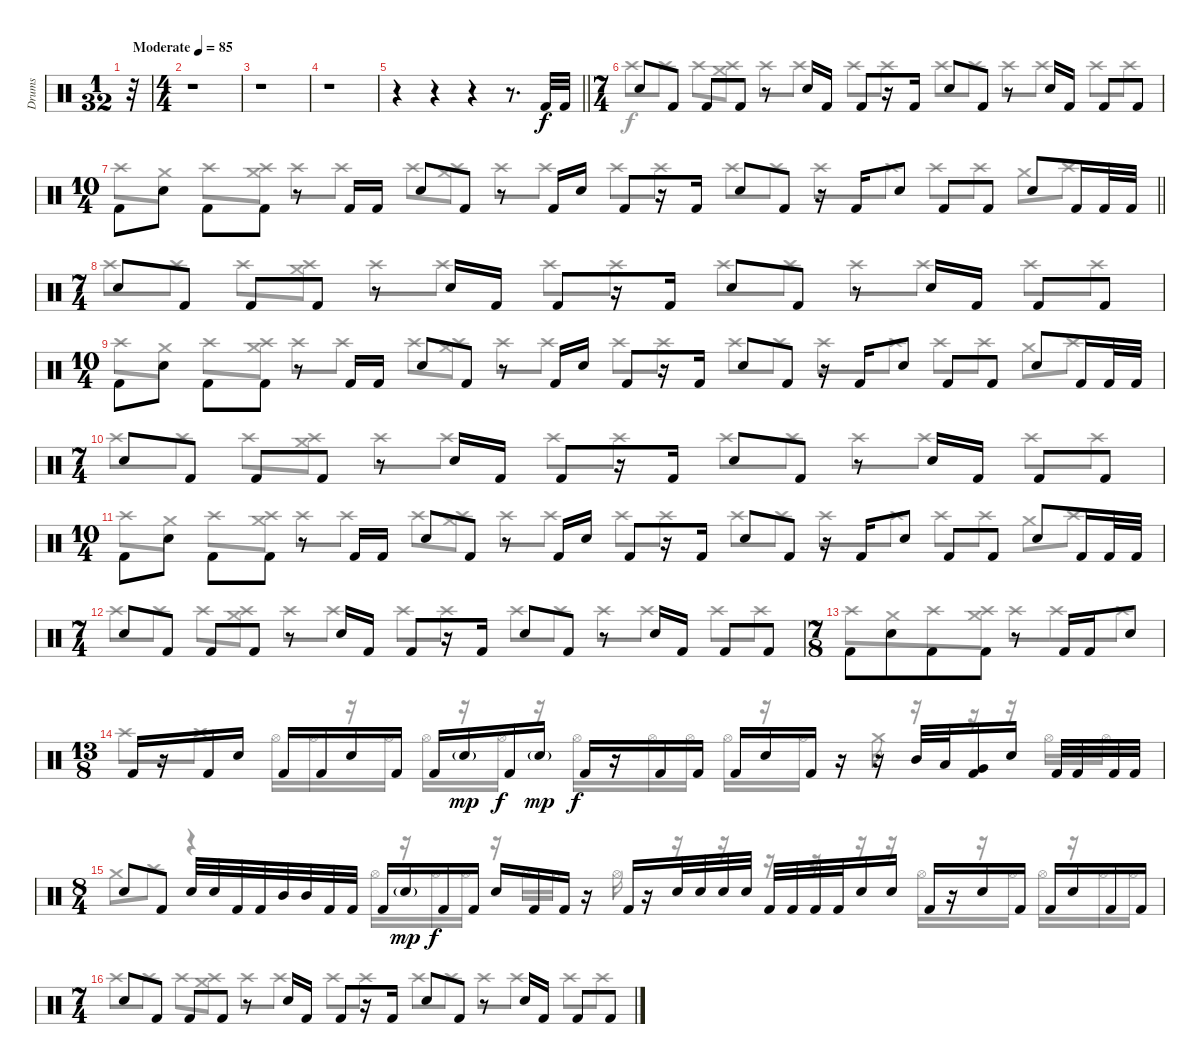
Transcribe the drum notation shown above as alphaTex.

\track ("Drums" "Drums") {instrument percussion}
\staff {score}
\articulation defaults
\voice
\ts (1 32)
\tempo (85 "Moderate")
\clef neutral
\ks c
r.32{dy f} |
\ts (4 4)
r.1 |
r.1 |
r.1 |
\barLineRight lightlight
r.4 r.4 r.4 r.8{d} "Kick (hit) 2".32 "Kick (hit) 2".32 |
\ts (7 4)
\section ("" "")
"Electric Snare (hit)".8 "Kick (hit) 2".8 "Kick (hit) 2".8 "Kick (hit) 2".8 r.8 "Electric Snare (hit)".16 "Kick (hit) 2".16 "Kick (hit) 2".8 r.16 "Kick (hit) 2".16 "Electric Snare (hit)".8 "Kick (hit) 2".8 r.8 "Electric Snare (hit)".16 "Kick (hit) 2".16 "Kick (hit) 2".8 "Kick (hit) 2".8 |
\ts (10 4)
\barLineRight lightlight "Kick (hit) 2".8{beam Down} "Electric Snare (hit)".8{beam Down} "Kick (hit) 2".8{beam Down} "Kick (hit) 2".8{beam Down}
r.8 "Kick (hit) 2".16 "Kick (hit) 2".16 "Electric Snare (hit)".8 "Kick (hit) 2".8 r.8 "Kick (hit) 2".16 "Electric Snare (hit)".16 "Kick (hit) 2".8 r.16 "Kick (hit) 2".16 "Electric Snare (hit)".8 "Kick (hit) 2".8 r.16 "Kick (hit) 2".16 "Electric Snare (hit)".8 "Kick (hit) 2".8 "Kick (hit) 2".8 "Electric Snare (hit)".8 "Kick (hit) 2".16 "Kick (hit) 2".32 "Kick (hit) 2".32 |
\ts (7 4)
\section ("" "")
"Electric Snare (hit)".8 "Kick (hit) 2".8 "Kick (hit) 2".8 "Kick (hit) 2".8 r.8 "Electric Snare (hit)".16 "Kick (hit) 2".16 "Kick (hit) 2".8 r.16 "Kick (hit) 2".16 "Electric Snare (hit)".8 "Kick (hit) 2".8 r.8 "Electric Snare (hit)".16 "Kick (hit) 2".16 "Kick (hit) 2".8 "Kick (hit) 2".8 |
\ts (10 4)
"Kick (hit) 2".8{beam Down} "Electric Snare (hit)".8{beam Down} "Kick (hit) 2".8{beam Down} "Kick (hit) 2".8{beam Down} r.8 "Kick (hit) 2".16 "Kick (hit) 2".16 "Electric Snare (hit)".8 "Kick (hit) 2".8 r.8 "Kick (hit) 2".16 "Electric Snare (hit)".16 "Kick (hit) 2".8 r.16 "Kick (hit) 2".16 "Electric Snare (hit)".8 "Kick (hit) 2".8 r.16 "Kick (hit) 2".16 "Electric Snare (hit)".8 "Kick (hit) 2".8 "Kick (hit) 2".8 "Electric Snare (hit)".8 "Kick (hit) 2".16 "Kick (hit) 2".32 "Kick (hit) 2".32 |
\ts (7 4)
"Electric Snare (hit)".8 "Kick (hit) 2".8 "Kick (hit) 2".8 "Kick (hit) 2".8 r.8 "Electric Snare (hit)".16 "Kick (hit) 2".16 "Kick (hit) 2".8 r.16 "Kick (hit) 2".16 "Electric Snare (hit)".8 "Kick (hit) 2".8 r.8 "Electric Snare (hit)".16 "Kick (hit) 2".16 "Kick (hit) 2".8 "Kick (hit) 2".8 |
\ts (10 4)
"Kick (hit) 2".8{beam Down} "Electric Snare (hit)".8{beam Down} "Kick (hit) 2".8{beam Down} "Kick (hit) 2".8{beam Down} r.8 "Kick (hit) 2".16 "Kick (hit) 2".16 "Electric Snare (hit)".8 "Kick (hit) 2".8 r.8 "Kick (hit) 2".16 "Electric Snare (hit)".16 "Kick (hit) 2".8 r.16 "Kick (hit) 2".16 "Electric Snare (hit)".8 "Kick (hit) 2".8 r.16 "Kick (hit) 2".16 "Electric Snare (hit)".8 "Kick (hit) 2".8 "Kick (hit) 2".8 "Electric Snare (hit)".8 "Kick (hit) 2".16 "Kick (hit) 2".32 "Kick (hit) 2".32 |
\ts (7 4)
"Electric Snare (hit)".8 "Kick (hit) 2".8 "Kick (hit) 2".8 "Kick (hit) 2".8 r.8 "Electric Snare (hit)".16 "Kick (hit) 2".16 "Kick (hit) 2".8 r.16 "Kick (hit) 2".16 "Electric Snare (hit)".8 "Kick (hit) 2".8 r.8 "Electric Snare (hit)".16 "Kick (hit) 2".16 "Kick (hit) 2".8 "Kick (hit) 2".8 |
\ts (7 8)
"Kick (hit) 2".8{beam Down} "Electric Snare (hit)".8{beam Down} "Kick (hit) 2".8{beam Down} "Kick (hit) 2".8{beam Down} r.8 "Kick (hit) 2".16 "Kick (hit) 2".16 "Electric Snare (hit)".8 |
\ts (13 8)
"Kick (hit) 2".16 r.16 "Kick (hit) 2".16 "Electric Snare (hit)".16 "Kick (hit) 2".16 "Kick (hit) 2".16 "Electric Snare (hit)".16 "Kick (hit) 2".16 "Kick (hit) 2".16 "Electric Snare (hit)"{g}.16{dy mp} "Kick (hit) 2".16{dy f} "Electric Snare (hit)"{g}.16{dy mp} "Kick (hit) 2".16{dy f} r.16 "Kick (hit) 2".16 "Kick (hit) 2".16 "Kick (hit) 2".16 "Electric Snare (hit)".16 "Kick (hit) 2".16 r.16 r.16 "Mid Tom (hit)".32 "Low Tom (hit)".32 ("Very Low Tom (hit)" "Kick (hit) 2").16 "Electric Snare (hit)".16 "Kick (hit) 2".32 "Kick (hit) 2".32 "Kick (hit) 2".32 "Kick (hit) 2".32 |
\ts (8 4)
"Electric Snare (hit)".8 "Kick (hit) 2".8 "Electric Snare (hit)".32 "Electric Snare (hit)".32 "Kick (hit) 2".32 "Kick (hit) 2".32 "Mid Tom (hit)".32 "Mid Tom (hit)".32 "Kick (hit) 2".32 "Kick (hit) 2".32 "Kick (hit) 2".16 "Electric Snare (hit)"{g}.16{dy mp} "Kick (hit) 2".16{dy f} "Kick (hit) 2".16 "Electric Snare (hit)".16 "Kick (hit) 2".16 "Kick (hit) 2".16 r.16 "Kick (hit) 2".16 r.16 "Electric Snare (hit)".32 "Electric Snare (hit)".32 "Electric Snare (hit)".32 "Electric Snare (hit)".32 "Kick (hit) 2".32 "Kick (hit) 2".32 "Kick (hit) 2".32 "Kick (hit) 2".32 "Electric Snare (hit)".16 "Electric Snare (hit)".16 "Kick (hit) 2".16 r.16 "Electric Snare (hit)".16 "Kick (hit) 2".16 "Kick (hit) 2".16 "Electric Snare (hit)".16 "Kick (hit) 2".16 "Kick (hit) 2".16 |
\ts (7 4)
"Electric Snare (hit)".8 "Kick (hit) 2".8 "Kick (hit) 2".8 "Kick (hit) 2".8 r.8 "Electric Snare (hit)".16 "Kick (hit) 2".16 "Kick (hit) 2".8 r.16 "Kick (hit) 2".16 "Electric Snare (hit)".8 "Kick (hit) 2".8 r.8 "Electric Snare (hit)".16 "Kick (hit) 2".16 "Kick (hit) 2".8 "Kick (hit) 2".8
\voice
\clef neutral
\ottava regular
\simile none
\ks c
|
|
|
|
\barLineRight lightlight
|
"Crash high (hit)".8 "Crash high (hit)".8 "Crash high (hit)".8 ("Crash medium (hit)" "Crash high (hit)").8 "Crash high (hit)".8 "Crash high (hit)".8 "Crash high (hit)".8 "Crash high (hit)".8 "Crash high (hit)".8 "Crash high (hit)".8 "Crash high (hit)".8 "Crash high (hit)".8 "Crash high (hit)".8 "Crash high (hit)".8 |
\barLineRight lightlight "Crash high (hit)".8 "Crash medium (hit)".8 "Crash high (hit)".8
("Crash high (hit)" "Crash medium (hit)").8 "Crash high (hit)".8 "Crash high (hit)".8 "Crash high (hit)".8 ("Crash high (hit)" "Crash medium (hit)").8 "Crash high (hit)".8 "Crash high (hit)".8 "Crash high (hit)".8 "Crash high (hit)".8 "Crash high (hit)".8 "Crash high (hit)".8 "Crash high (hit)".8 "Crash high (hit)".8 "Crash high (hit)".8 "Crash high (hit)".8 "Crash medium (hit)".8 "Crash high (hit)".8 |
"Crash high (hit)".8 "Crash high (hit)".8 "Crash high (hit)".8 ("Crash medium (hit)" "Crash high (hit)").8 "Crash high (hit)".8 "Crash high (hit)".8 "Crash high (hit)".8 "Crash high (hit)".8 "Crash high (hit)".8 "Crash high (hit)".8 "Crash high (hit)".8 "Crash high (hit)".8 "Crash high (hit)".8 "Crash high (hit)".8 |
"Crash high (hit)".8 "Crash medium (hit)".8 "Crash high (hit)".8 ("Crash high (hit)" "Crash medium (hit)").8 "Crash high (hit)".8 "Crash high (hit)".8 "Crash high (hit)".8 ("Crash high (hit)" "Crash medium (hit)").8 "Crash high (hit)".8 "Crash high (hit)".8 "Crash high (hit)".8 "Crash high (hit)".8 "Crash high (hit)".8 "Crash high (hit)".8 "Crash high (hit)".8 "Crash high (hit)".8 "Crash high (hit)".8 "Crash high (hit)".8 "Crash medium (hit)".8 "Crash high (hit)".8 |
"Crash high (hit)".8 "Crash high (hit)".8 "Crash high (hit)".8 ("Crash medium (hit)" "Crash high (hit)").8 "Crash high (hit)".8 "Crash high (hit)".8 "Crash high (hit)".8 "Crash high (hit)".8 "Crash high (hit)".8 "Crash high (hit)".8 "Crash high (hit)".8 "Crash high (hit)".8 "Crash high (hit)".8 "Crash high (hit)".8 |
"Crash high (hit)".8 "Crash medium (hit)".8 "Crash high (hit)".8 ("Crash high (hit)" "Crash medium (hit)").8 "Crash high (hit)".8 "Crash high (hit)".8 "Crash high (hit)".8 ("Crash high (hit)" "Crash medium (hit)").8 "Crash high (hit)".8 "Crash high (hit)".8 "Crash high (hit)".8 "Crash high (hit)".8 "Crash high (hit)".8 "Crash high (hit)".8 "Crash high (hit)".8 "Crash high (hit)".8 "Crash high (hit)".8 "Crash high (hit)".8 "Crash medium (hit)".8 "Crash high (hit)".8 |
"Crash high (hit)".8 "Crash high (hit)".8 "Crash high (hit)".8 ("Crash medium (hit)" "Crash high (hit)").8 "Crash high (hit)".8 "Crash high (hit)".8 "Crash high (hit)".8 "Crash high (hit)".8 "Crash high (hit)".8 "Crash high (hit)".8 "Crash high (hit)".8 "Crash high (hit)".8 "Crash high (hit)".8 "Crash high (hit)".8 |
"Crash high (hit)".8 "Crash medium (hit)".8 "Crash high (hit)".8 ("Crash high (hit)" "Crash medium (hit)").8 "Crash high (hit)".8 "Crash high (hit)".8 "Crash high (hit)".8 |
"Crash high (hit)".8 "Crash high (hit)".8 "Hi-Hat (open)".16 "Hi-Hat (open)".16 r.16 "Hi-Hat (open)".16 "Hi-Hat (open)".16 r.16 "Hi-Hat (open)".16 r.16 "Hi-Hat (open)".16 r.16 "Hi-Hat (open)".16 "Hi-Hat (open)".16 "Hi-Hat (open)".16 r.16 "Hi-Hat (open)".16 r.16 "Crash medium (hit)".16 r.16 r.16 r.16 "Hi-Hat (open)".16 "Hi-Hat (open)".16 |
"Crash medium (hit)".8 "Crash high (hit)".8 r.4 "Hi-Hat (open)".16 r.16 "Hi-Hat (open)".16 "Hi-Hat (open)".16 r.16 "Hi-Hat (open)".16 "Hi-Hat (open)".16 r.16 "Hi-Hat (open)".16 r.16 r.16 r.16 r.16 r.16 r.16 r.16 "Hi-Hat (open)".16 r.16 r.16 "Hi-Hat (open)".16 "Hi-Hat (open)".16 r.16 "Hi-Hat (open)".16 "Hi-Hat (open)".16 |
"Crash high (hit)".8 "Crash high (hit)".8 "Crash high (hit)".8 ("Crash medium (hit)" "Crash high (hit)").8 "Crash high (hit)".8 "Crash high (hit)".8 "Crash high (hit)".8 "Crash high (hit)".8 "Crash high (hit)".8 "Crash high (hit)".8 "Crash high (hit)".8 "Crash high (hit)".8 "Crash high (hit)".8 "Crash high (hit)".8
